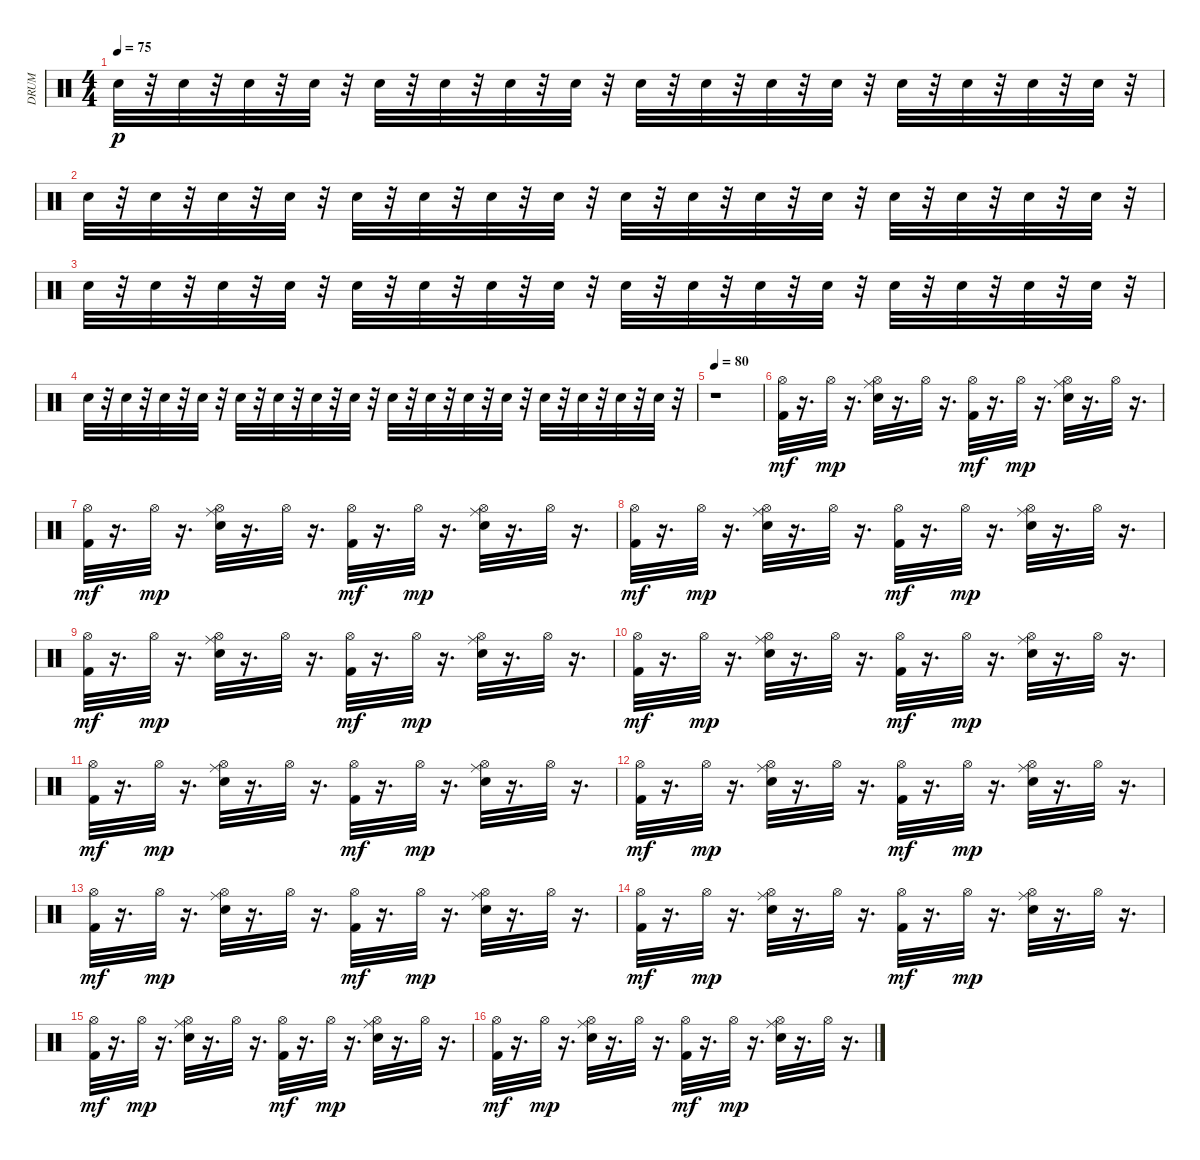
\track ("DRUM" "DRUM") {instrument percussion}
\staff {score}
\articulation defaults
\ts (4 4)
\tempo 75
\clef neutral
\ks c "Snare (hit)".32{dy p}
r.32 "Snare (hit)".32 r.32 "Snare (hit)".32 r.32 "Snare (hit)".32 r.32 "Snare (hit)".32 r.32 "Snare (hit)".32 r.32 "Snare (hit)".32 r.32 "Snare (hit)".32 r.32 "Snare (hit)".32 r.32 "Snare (hit)".32 r.32 "Snare (hit)".32 r.32 "Snare (hit)".32 r.32 "Snare (hit)".32 r.32 "Snare (hit)".32 r.32 "Snare (hit)".32 r.32 "Snare (hit)".32 r.32 |
"Snare (hit)".32 r.32 "Snare (hit)".32 r.32 "Snare (hit)".32 r.32 "Snare (hit)".32 r.32 "Snare (hit)".32 r.32 "Snare (hit)".32 r.32 "Snare (hit)".32 r.32 "Snare (hit)".32 r.32 "Snare (hit)".32 r.32 "Snare (hit)".32 r.32 "Snare (hit)".32 r.32 "Snare (hit)".32 r.32 "Snare (hit)".32 r.32 "Snare (hit)".32 r.32 "Snare (hit)".32 r.32 "Snare (hit)".32 r.32 |
"Snare (hit)".32 r.32 "Snare (hit)".32 r.32 "Snare (hit)".32 r.32 "Snare (hit)".32 r.32 "Snare (hit)".32 r.32 "Snare (hit)".32 r.32 "Snare (hit)".32 r.32 "Snare (hit)".32 r.32 "Snare (hit)".32 r.32 "Snare (hit)".32 r.32 "Snare (hit)".32 r.32 "Snare (hit)".32 r.32 "Snare (hit)".32 r.32 "Snare (hit)".32 r.32 "Snare (hit)".32 r.32 "Snare (hit)".32 r.32 |
"Snare (hit)".32 r.32 "Snare (hit)".32 r.32 "Snare (hit)".32 r.32 "Snare (hit)".32 r.32 "Snare (hit)".32 r.32 "Snare (hit)".32 r.32 "Snare (hit)".32 r.32 "Snare (hit)".32 r.32 "Snare (hit)".32 r.32 "Snare (hit)".32 r.32 "Snare (hit)".32 r.32 "Snare (hit)".32 r.32 "Snare (hit)".32 r.32 "Snare (hit)".32 r.32 "Snare (hit)".32 r.32 "Snare (hit)".32 r.32 |
\tempo 80
r.1 |
("Hi-Hat (open)" "Kick (hit) 2").32{dy mf volume 16} r.16{d} "Hi-Hat (open)".32{dy mp} r.16{d} ("Electric Snare (hit)" "Hi-Hat (open)" "Ride (middle)").32 r.16{d} "Hi-Hat (open)".32 r.16{d} ("Hi-Hat (open)" "Kick (hit) 2").32{dy mf} r.16{d} "Hi-Hat (open)".32{dy mp} r.16{d} ("Electric Snare (hit)" "Ride (middle)" "Hi-Hat (open)").32 r.16{d} "Hi-Hat (open)".32 r.16{d} |
("Kick (hit) 2" "Hi-Hat (open)").32{dy mf} r.16{d} "Hi-Hat (open)".32{dy mp} r.16{d} ("Hi-Hat (open)" "Electric Snare (hit)" "Ride (middle)").32 r.16{d} "Hi-Hat (open)".32 r.16{d} ("Kick (hit) 2" "Hi-Hat (open)").32{dy mf} r.16{d} "Hi-Hat (open)".32{dy mp} r.16{d} ("Ride (middle)" "Electric Snare (hit)" "Hi-Hat (open)").32 r.16{d} "Hi-Hat (open)".32 r.16{d} |
("Hi-Hat (open)" "Kick (hit) 2").32{dy mf} r.16{d} "Hi-Hat (open)".32{dy mp} r.16{d} ("Hi-Hat (open)" "Electric Snare (hit)" "Ride (middle)").32 r.16{d} "Hi-Hat (open)".32 r.16{d} ("Kick (hit) 2" "Hi-Hat (open)").32{dy mf} r.16{d} "Hi-Hat (open)".32{dy mp} r.16{d} ("Hi-Hat (open)" "Electric Snare (hit)" "Ride (middle)").32 r.16{d} "Hi-Hat (open)".32 r.16{d} |
("Kick (hit) 2" "Hi-Hat (open)").32{dy mf} r.16{d} "Hi-Hat (open)".32{dy mp} r.16{d} ("Ride (middle)" "Electric Snare (hit)" "Hi-Hat (open)").32 r.16{d} "Hi-Hat (open)".32 r.16{d} ("Kick (hit) 2" "Hi-Hat (open)").32{dy mf} r.16{d} "Hi-Hat (open)".32{dy mp} r.16{d} ("Electric Snare (hit)" "Hi-Hat (open)" "Ride (middle)").32 r.16{d} "Hi-Hat (open)".32 r.16{d} |
("Kick (hit) 2" "Hi-Hat (open)").32{dy mf} r.16{d} "Hi-Hat (open)".32{dy mp} r.16{d} ("Electric Snare (hit)" "Ride (middle)" "Hi-Hat (open)").32 r.16{d} "Hi-Hat (open)".32 r.16{d} ("Kick (hit) 2" "Hi-Hat (open)").32{dy mf} r.16{d} "Hi-Hat (open)".32{dy mp} r.16{d} ("Electric Snare (hit)" "Ride (middle)" "Hi-Hat (open)").32 r.16{d} "Hi-Hat (open)".32 r.16{d} |
("Kick (hit) 2" "Hi-Hat (open)").32{dy mf} r.16{d} "Hi-Hat (open)".32{dy mp} r.16{d} ("Hi-Hat (open)" "Electric Snare (hit)" "Ride (middle)").32 r.16{d} "Hi-Hat (open)".32 r.16{d} ("Hi-Hat (open)" "Kick (hit) 2").32{dy mf} r.16{d} "Hi-Hat (open)".32{dy mp} r.16{d} ("Hi-Hat (open)" "Ride (middle)" "Electric Snare (hit)").32 r.16{d} "Hi-Hat (open)".32 r.16{d} |
("Hi-Hat (open)" "Kick (hit) 2").32{dy mf} r.16{d} "Hi-Hat (open)".32{dy mp} r.16{d} ("Hi-Hat (open)" "Electric Snare (hit)" "Ride (middle)").32 r.16{d} "Hi-Hat (open)".32 r.16{d} ("Kick (hit) 2" "Hi-Hat (open)").32{dy mf} r.16{d} "Hi-Hat (open)".32{dy mp} r.16{d} ("Electric Snare (hit)" "Ride (middle)" "Hi-Hat (open)").32 r.16{d} "Hi-Hat (open)".32 r.16{d} |
("Hi-Hat (open)" "Kick (hit) 2").32{dy mf} r.16{d} "Hi-Hat (open)".32{dy mp} r.16{d} ("Hi-Hat (open)" "Ride (middle)" "Electric Snare (hit)").32 r.16{d} "Hi-Hat (open)".32 r.16{d} ("Kick (hit) 2" "Hi-Hat (open)").32{dy mf} r.16{d} "Hi-Hat (open)".32{dy mp} r.16{d} ("Electric Snare (hit)" "Ride (middle)" "Hi-Hat (open)").32 r.16{d} "Hi-Hat (open)".32 r.16{d} |
("Kick (hit) 2" "Hi-Hat (open)").32{dy mf} r.16{d} "Hi-Hat (open)".32{dy mp} r.16{d} ("Hi-Hat (open)" "Ride (middle)" "Electric Snare (hit)").32 r.16{d} "Hi-Hat (open)".32 r.16{d} ("Kick (hit) 2" "Hi-Hat (open)").32{dy mf} r.16{d} "Hi-Hat (open)".32{dy mp} r.16{d} ("Hi-Hat (open)" "Electric Snare (hit)" "Ride (middle)").32 r.16{d} "Hi-Hat (open)".32 r.16{d} |
("Hi-Hat (open)" "Kick (hit) 2").32{dy mf} r.16{d} "Hi-Hat (open)".32{dy mp} r.16{d} ("Ride (middle)" "Hi-Hat (open)" "Electric Snare (hit)").32 r.16{d} "Hi-Hat (open)".32 r.16{d} ("Hi-Hat (open)" "Kick (hit) 2").32{dy mf} r.16{d} "Hi-Hat (open)".32{dy mp} r.16{d} ("Electric Snare (hit)" "Ride (middle)" "Hi-Hat (open)").32 r.16{d} "Hi-Hat (open)".32 r.16{d} |
("Hi-Hat (open)" "Kick (hit) 2").32{dy mf} r.16{d} "Hi-Hat (open)".32{dy mp} r.16{d} ("Ride (middle)" "Hi-Hat (open)" "Electric Snare (hit)").32 r.16{d} "Hi-Hat (open)".32 r.16{d} ("Hi-Hat (open)" "Kick (hit) 2").32{dy mf} r.16{d} "Hi-Hat (open)".32{dy mp} r.16{d} ("Electric Snare (hit)" "Ride (middle)" "Hi-Hat (open)").32 r.16{d} "Hi-Hat (open)".32 r.16{d}
